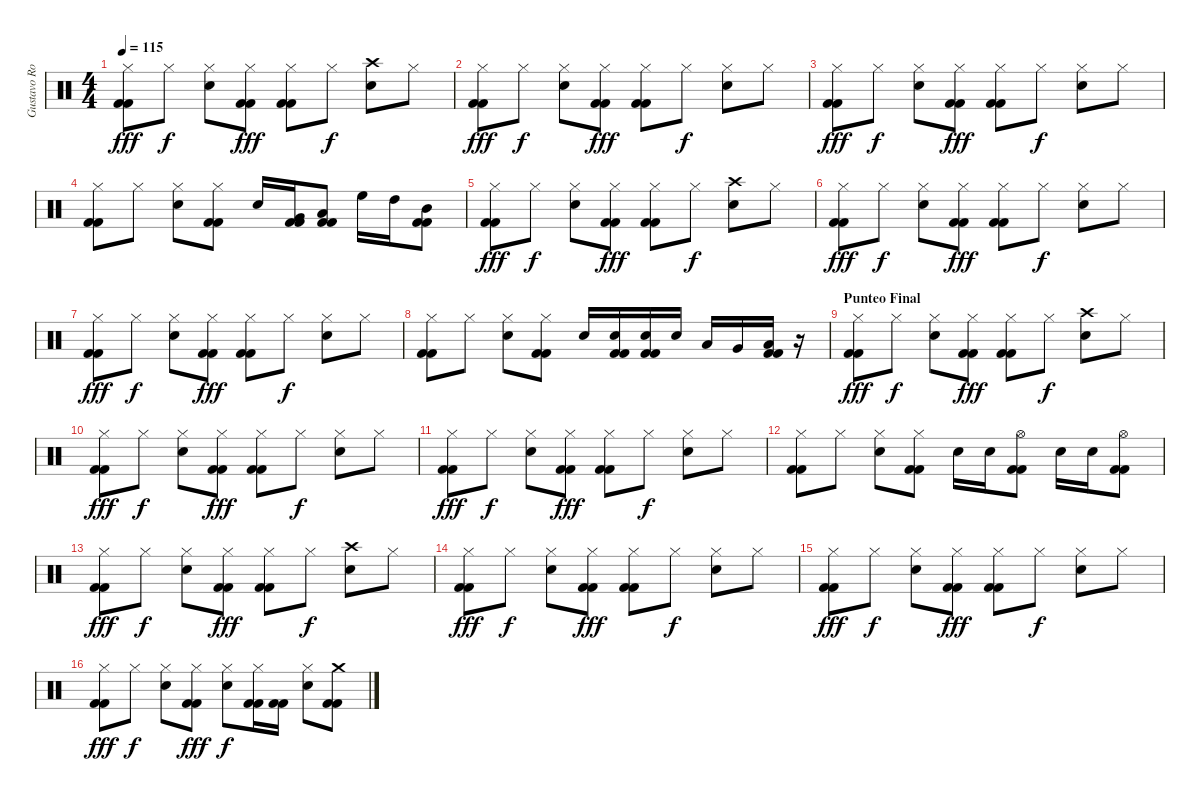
\track ("Gustavo Rowek" "Gustavo Ro") {instrument percussion}
\staff {score}
\articulation defaults
\ts (4 4)
\tempo 115
\clef neutral
\ks c
("Kick (hit) 2" "Kick (hit) 2" "Hi-Hat (closed)").8{dy fff} "Hi-Hat (closed)".8{dy f} ("Snare (hit) 2" "Hi-Hat (closed)").8 ("Kick (hit) 2" "Kick (hit) 2" "Hi-Hat (closed)").8{dy fff} ("Kick (hit) 2" "Kick (hit) 2" "Hi-Hat (closed)").8 "Hi-Hat (closed)".8{dy f} ("Snare (hit) 2" "Crash high (hit)").8 "Hi-Hat (closed)".8 |
("Kick (hit) 2" "Kick (hit) 2" "Hi-Hat (closed)").8{dy fff} "Hi-Hat (closed)".8{dy f} ("Snare (hit) 2" "Hi-Hat (closed)").8 ("Kick (hit) 2" "Kick (hit) 2" "Hi-Hat (closed)").8{dy fff} ("Kick (hit) 2" "Kick (hit) 2" "Hi-Hat (closed)").8 "Hi-Hat (closed)".8{dy f} ("Snare (hit) 2" "Hi-Hat (closed)").8 "Hi-Hat (closed)".8 |
("Kick (hit) 2" "Kick (hit) 2" "Hi-Hat (closed)").8{dy fff} "Hi-Hat (closed)".8{dy f} ("Snare (hit) 2" "Hi-Hat (closed)").8 ("Kick (hit) 2" "Kick (hit) 2" "Hi-Hat (closed)").8{dy fff} ("Kick (hit) 2" "Kick (hit) 2" "Hi-Hat (closed)").8 "Hi-Hat (closed)".8{dy f} ("Snare (hit) 2" "Hi-Hat (closed)").8 "Hi-Hat (closed)".8 |
("Kick (hit) 2" "Kick (hit) 2" "Hi-Hat (closed)").8 "Hi-Hat (closed)".8 ("Snare (hit) 2" "Hi-Hat (closed)").8 ("Kick (hit) 2" "Kick (hit) 2" "Hi-Hat (closed)").8 "Snare (hit) 2".16 ("Kick (hit) 2" "Kick (hit) 2" "Very Low Tom (hit)").16 ("Kick (hit) 2" "Kick (hit) 2" "Low Floor Tom (hit)").8 "High Floor Tom (hit)".16 "High Tom (hit)".16 ("Kick (hit) 2" "Kick (hit) 2" "Mid Tom (hit)").8 |
("Kick (hit) 2" "Kick (hit) 2" "Hi-Hat (closed)").8{dy fff} "Hi-Hat (closed)".8{dy f} ("Snare (hit) 2" "Hi-Hat (closed)").8 ("Kick (hit) 2" "Kick (hit) 2" "Hi-Hat (closed)").8{dy fff} ("Kick (hit) 2" "Kick (hit) 2" "Hi-Hat (closed)").8 "Hi-Hat (closed)".8{dy f} ("Snare (hit) 2" "Crash high (hit)").8 "Hi-Hat (closed)".8 |
("Kick (hit) 2" "Kick (hit) 2" "Hi-Hat (closed)").8{dy fff} "Hi-Hat (closed)".8{dy f} ("Snare (hit) 2" "Hi-Hat (closed)").8 ("Kick (hit) 2" "Kick (hit) 2" "Hi-Hat (closed)").8{dy fff} ("Kick (hit) 2" "Kick (hit) 2" "Hi-Hat (closed)").8 "Hi-Hat (closed)".8{dy f} ("Snare (hit) 2" "Hi-Hat (closed)").8 "Hi-Hat (closed)".8 |
("Kick (hit) 2" "Kick (hit) 2" "Hi-Hat (closed)").8{dy fff} "Hi-Hat (closed)".8{dy f} ("Snare (hit) 2" "Hi-Hat (closed)").8 ("Kick (hit) 2" "Kick (hit) 2" "Hi-Hat (closed)").8{dy fff} ("Kick (hit) 2" "Kick (hit) 2" "Hi-Hat (closed)").8 "Hi-Hat (closed)".8{dy f} ("Snare (hit) 2" "Hi-Hat (closed)").8 "Hi-Hat (closed)".8 |
("Kick (hit) 2" "Kick (hit) 2" "Hi-Hat (closed)").8 "Hi-Hat (closed)".8 ("Snare (hit) 2" "Hi-Hat (closed)").8 ("Kick (hit) 2" "Kick (hit) 2" "Hi-Hat (closed)").8 "Snare (hit) 2".16 ("Kick (hit) 2" "Kick (hit) 2" "Snare (hit) 2").16 ("Kick (hit) 2" "Kick (hit) 2" "Snare (hit) 2").16 "Snare (hit) 2".16 "Low Tom (hit)".16 "Very Low Tom (hit)".16 ("Kick (hit) 2" "Kick (hit) 2" "Low Floor Tom (hit)").16 r.16 |
\section ("" "Punteo Final")
("Kick (hit) 2" "Kick (hit) 2" "Hi-Hat (closed)").8{dy fff} "Hi-Hat (closed)".8{dy f} ("Snare (hit) 2" "Hi-Hat (closed)").8 ("Kick (hit) 2" "Kick (hit) 2" "Hi-Hat (closed)").8{dy fff} ("Kick (hit) 2" "Kick (hit) 2" "Hi-Hat (closed)").8 "Hi-Hat (closed)".8{dy f} ("Snare (hit) 2" "Crash high (hit)").8 "Hi-Hat (closed)".8 |
("Kick (hit) 2" "Kick (hit) 2" "Hi-Hat (closed)").8{dy fff} "Hi-Hat (closed)".8{dy f} ("Snare (hit) 2" "Hi-Hat (closed)").8 ("Kick (hit) 2" "Kick (hit) 2" "Hi-Hat (closed)").8{dy fff} ("Kick (hit) 2" "Kick (hit) 2" "Hi-Hat (closed)").8 "Hi-Hat (closed)".8{dy f} ("Snare (hit) 2" "Hi-Hat (closed)").8 "Hi-Hat (closed)".8 |
("Kick (hit) 2" "Kick (hit) 2" "Hi-Hat (closed)").8{dy fff} "Hi-Hat (closed)".8{dy f} ("Snare (hit) 2" "Hi-Hat (closed)").8 ("Kick (hit) 2" "Kick (hit) 2" "Hi-Hat (closed)").8{dy fff} ("Kick (hit) 2" "Kick (hit) 2" "Hi-Hat (closed)").8 "Hi-Hat (closed)".8{dy f} ("Snare (hit) 2" "Hi-Hat (closed)").8 "Hi-Hat (closed)".8 |
("Kick (hit) 2" "Kick (hit) 2" "Hi-Hat (closed)").8 "Hi-Hat (closed)".8 ("Snare (hit) 2" "Hi-Hat (closed)").8 ("Kick (hit) 2" "Kick (hit) 2" "Hi-Hat (closed)").8 "Snare (hit) 2".16 "Snare (hit) 2".16 ("Kick (hit) 2" "Kick (hit) 2" "Hi-Hat (open)").8 "Snare (hit) 2".16 "Snare (hit) 2".16 ("Kick (hit) 2" "Kick (hit) 2" "Hi-Hat (open)").8 |
("Kick (hit) 2" "Kick (hit) 2" "Hi-Hat (closed)").8{dy fff} "Hi-Hat (closed)".8{dy f} ("Snare (hit) 2" "Hi-Hat (closed)").8 ("Kick (hit) 2" "Kick (hit) 2" "Hi-Hat (closed)").8{dy fff} ("Kick (hit) 2" "Kick (hit) 2" "Hi-Hat (closed)").8 "Hi-Hat (closed)".8{dy f} ("Snare (hit) 2" "Crash high (hit)").8 "Hi-Hat (closed)".8 |
("Kick (hit) 2" "Kick (hit) 2" "Hi-Hat (closed)").8{dy fff} "Hi-Hat (closed)".8{dy f} ("Snare (hit) 2" "Hi-Hat (closed)").8 ("Kick (hit) 2" "Kick (hit) 2" "Hi-Hat (closed)").8{dy fff} ("Kick (hit) 2" "Kick (hit) 2" "Hi-Hat (closed)").8 "Hi-Hat (closed)".8{dy f} ("Snare (hit) 2" "Hi-Hat (closed)").8 "Hi-Hat (closed)".8 |
("Kick (hit) 2" "Kick (hit) 2" "Hi-Hat (closed)").8{dy fff} "Hi-Hat (closed)".8{dy f} ("Snare (hit) 2" "Hi-Hat (closed)").8 ("Kick (hit) 2" "Kick (hit) 2" "Hi-Hat (closed)").8{dy fff} ("Kick (hit) 2" "Kick (hit) 2" "Hi-Hat (closed)").8 "Hi-Hat (closed)".8{dy f} ("Snare (hit) 2" "Hi-Hat (closed)").8 "Hi-Hat (closed)".8 |
("Kick (hit) 2" "Kick (hit) 2" "Hi-Hat (closed)").8{dy fff} "Hi-Hat (closed)".8{dy f} ("Snare (hit) 2" "Hi-Hat (closed)").8 ("Kick (hit) 2" "Kick (hit) 2" "Hi-Hat (closed)").8{dy fff} ("Snare (hit) 2" "Hi-Hat (closed)").8{dy f} ("Kick (hit) 2" "Kick (hit) 2" "Hi-Hat (closed)").16 ("Kick (hit) 2" "Kick (hit) 2").16 ("Snare (hit) 2" "Hi-Hat (closed)").8 ("Kick (hit) 2" "Kick (hit) 2" "Crash medium (hit)").8
